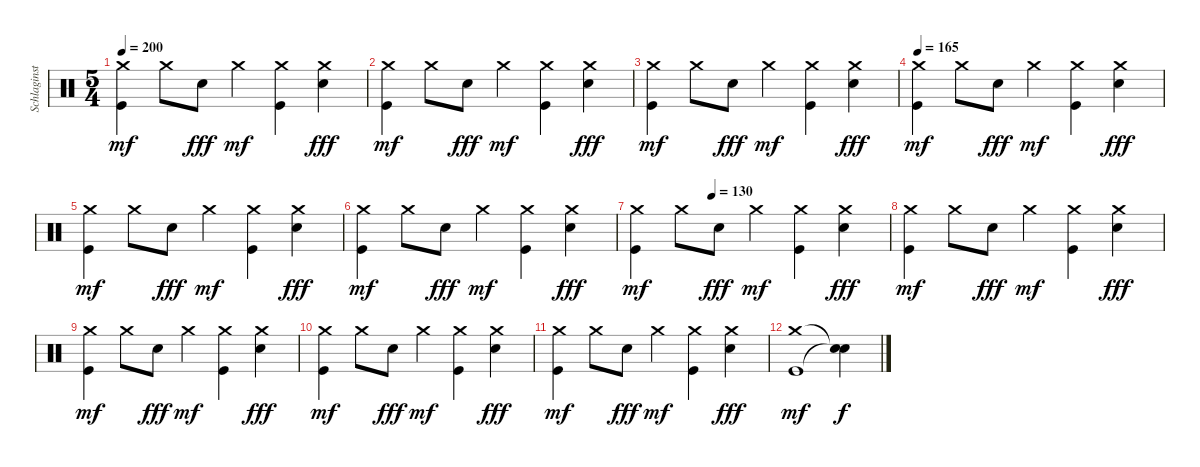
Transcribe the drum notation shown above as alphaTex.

\track ("Schlaginstrumente - Auswahl" "Schlaginst") {instrument percussion}
\staff {score}
\articulation defaults
\ts (5 4)
\tempo 200
\clef neutral
\ks c
("Crash medium (hit)" "Kick (hit)").4{dy mf} "Crash medium (hit)".8 "Snare (hit) 2".8{dy fff} "Crash medium (hit)".4{dy mf} ("Crash medium (hit)" "Kick (hit)").4 ("Crash medium (hit)" "Snare (hit) 2").4{dy fff} |
("Crash medium (hit)" "Kick (hit)").4{dy mf} "Crash medium (hit)".8 "Snare (hit) 2".8{dy fff} "Crash medium (hit)".4{dy mf} ("Crash medium (hit)" "Kick (hit)").4 ("Crash medium (hit)" "Snare (hit) 2").4{dy fff} |
("Crash medium (hit)" "Kick (hit)").4{dy mf} "Crash medium (hit)".8 "Snare (hit) 2".8{dy fff} "Crash medium (hit)".4{dy mf} ("Crash medium (hit)" "Kick (hit)").4 ("Crash medium (hit)" "Snare (hit) 2").4{dy fff} |
\tempo 165
("Crash medium (hit)" "Kick (hit)").4{dy mf} "Crash medium (hit)".8 "Snare (hit) 2".8{dy fff} "Crash medium (hit)".4{dy mf} ("Crash medium (hit)" "Kick (hit)").4 ("Crash medium (hit)" "Snare (hit) 2").4{dy fff} |
("Crash medium (hit)" "Kick (hit)").4{dy mf} "Crash medium (hit)".8 "Snare (hit) 2".8{dy fff} "Crash medium (hit)".4{dy mf} ("Crash medium (hit)" "Kick (hit)").4 ("Crash medium (hit)" "Snare (hit) 2").4{dy fff} |
("Crash medium (hit)" "Kick (hit)").4{dy mf} "Crash medium (hit)".8 "Snare (hit) 2".8{dy fff} "Crash medium (hit)".4{dy mf} ("Crash medium (hit)" "Kick (hit)").4 ("Crash medium (hit)" "Snare (hit) 2").4{dy fff} |
\tempo (130 0.3)
("Crash medium (hit)" "Kick (hit)").4{dy mf} "Crash medium (hit)".8 "Snare (hit) 2".8{dy fff} "Crash medium (hit)".4{dy mf} ("Crash medium (hit)" "Kick (hit)").4 ("Crash medium (hit)" "Snare (hit) 2").4{dy fff} |
("Crash medium (hit)" "Kick (hit)").4{dy mf} "Crash medium (hit)".8 "Snare (hit) 2".8{dy fff} "Crash medium (hit)".4{dy mf} ("Crash medium (hit)" "Kick (hit)").4 ("Crash medium (hit)" "Snare (hit) 2").4{dy fff} |
("Crash medium (hit)" "Kick (hit)").4{dy mf} "Crash medium (hit)".8 "Snare (hit) 2".8{dy fff} "Crash medium (hit)".4{dy mf} ("Crash medium (hit)" "Kick (hit)").4 ("Crash medium (hit)" "Snare (hit) 2").4{dy fff} |
("Crash medium (hit)" "Kick (hit)").4{dy mf} "Crash medium (hit)".8 "Snare (hit) 2".8{dy fff} "Crash medium (hit)".4{dy mf} ("Crash medium (hit)" "Kick (hit)").4 ("Crash medium (hit)" "Snare (hit) 2").4{dy fff} |
("Crash medium (hit)" "Kick (hit)").4{dy mf} "Crash medium (hit)".8 "Snare (hit) 2".8{dy fff} "Crash medium (hit)".4{dy mf} ("Crash medium (hit)" "Kick (hit)").4 ("Crash medium (hit)" "Snare (hit) 2").4{dy fff} |
("Crash medium (hit)" "Kick (hit)").1{dy mf} ("Snare (hit)"{t} "Snare (hit)"{t}).4{dy f}
